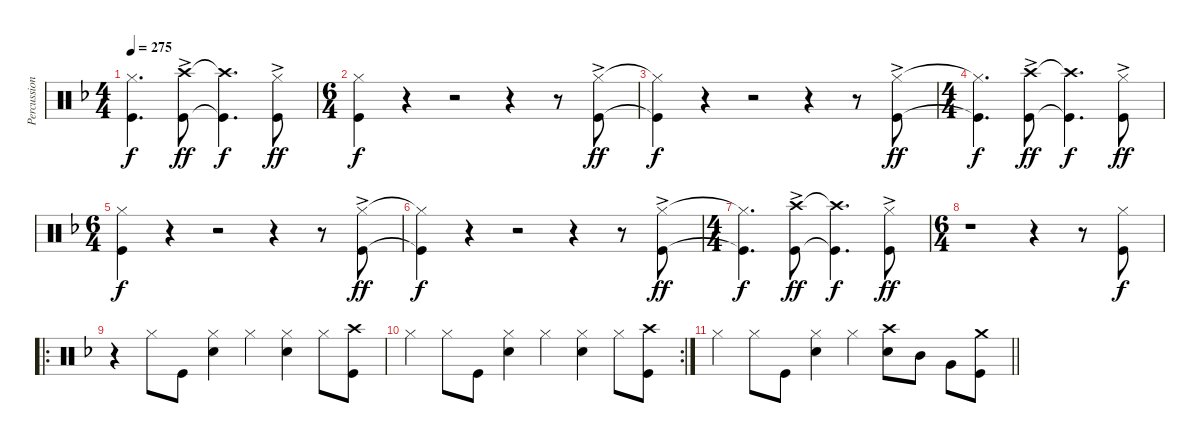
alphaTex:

\track ("Percussion" "Percussion") {instrument percussion}
\staff {score}
\articulation defaults
\ts (4 4)
\tempo 275
\clef neutral
\ks dminor
("Hi-Hat (closed)"{t} "Kick (hit)"{t}).4{d dy f} ("Crash high (hit)"{ac} "Kick (hit)"{ac}).8{dy ff} ("Crash high (hit)"{t} "Kick (hit)"{t}).4{d dy f} ("Hi-Hat (closed)"{ac} "Kick (hit)"{ac}).8{dy ff} |
\ts (6 4)
("Hi-Hat (closed)" "Kick (hit)").4{dy f} r.4 r.2 r.4 r.8 ("Hi-Hat (closed)" "Kick (hit)"{ac}).8{dy ff} |
("Hi-Hat (closed)"{t} "Kick (hit)"{t}).4{dy f} r.4 r.2 r.4 r.8 ("Hi-Hat (closed)"{ac} "Kick (hit)"{ac}).8{dy ff} |
\ts (4 4)
("Hi-Hat (closed)"{t} "Kick (hit)"{t}).4{d dy f} ("Crash high (hit)"{ac} "Kick (hit)"{ac}).8{dy ff} ("Crash high (hit)"{t} "Kick (hit)"{t}).4{d dy f} ("Hi-Hat (closed)"{ac} "Kick (hit)"{ac}).8{dy ff} |
\ts (6 4)
("Hi-Hat (closed)" "Kick (hit)").4{dy f} r.4 r.2 r.4 r.8 ("Hi-Hat (closed)" "Kick (hit)"{ac}).8{dy ff} |
("Hi-Hat (closed)"{t} "Kick (hit)"{t}).4{dy f} r.4 r.2 r.4 r.8 ("Hi-Hat (closed)"{ac} "Kick (hit)"{ac}).8{dy ff} |
\ts (4 4)
("Hi-Hat (closed)"{t} "Kick (hit)"{t}).4{d dy f} ("Crash high (hit)"{ac} "Kick (hit)"{ac}).8{dy ff} ("Crash high (hit)"{t} "Kick (hit)"{t}).4{d dy f} ("Hi-Hat (closed)"{ac} "Kick (hit)"{ac}).8{dy ff} |
\ts (6 4)
r.1 r.4 r.8 ("Hi-Hat (closed)" "Kick (hit)").8{dy f} |
\ro
r.4 "Hi-Hat (closed)".8 "Kick (hit)".8 ("Hi-Hat (closed)" "Snare (hit) 2").4 "Hi-Hat (closed)".4 ("Hi-Hat (closed)" "Snare (hit) 2").4 "Hi-Hat (closed)".8 ("Crash high (hit)" "Kick (hit)").8 |
\rc 2 "Hi-Hat (closed)".4 "Hi-Hat (closed)".8 "Kick (hit)".8
("Hi-Hat (closed)" "Snare (hit) 2").4 "Hi-Hat (closed)".4 ("Hi-Hat (closed)" "Snare (hit) 2").4 "Hi-Hat (closed)".8 ("Crash high (hit)" "Kick (hit)").8 |
\barLineRight lightlight "Hi-Hat (closed)".4 "Hi-Hat (closed)".8 "Kick (hit)".8
("Hi-Hat (closed)" "Snare (hit) 2").4 "Hi-Hat (closed)".4 ("Crash high (hit)" "Snare (hit) 2").8 "Mid Tom (hit)".8 "Very Low Tom (hit)".8 ("Crash medium (hit)" "Kick (hit)").8
